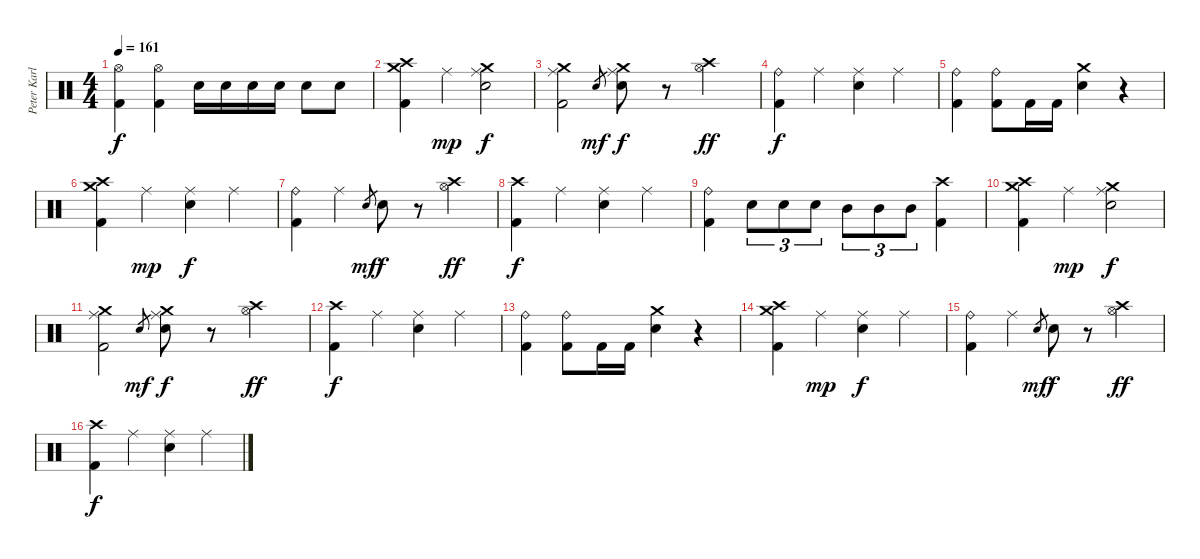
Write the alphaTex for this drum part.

\track ("Peter Karlsson" "Peter Karl") {instrument percussion}
\staff {score}
\articulation defaults
\ts (4 4)
\tempo 161
\clef neutral
\ks c
("Hi-Hat (open)" "Kick (hit) 2").4{dy f} ("Hi-Hat (open)" "Kick (hit) 2").4 "Snare (hit) 2".16 "Snare (hit) 2".16 "Snare (hit) 2".16 "Snare (hit) 2".16 "Snare (hit) 2".8 "Snare (hit) 2".8 |
("Crash high (hit)" "Crash medium (hit)" "Kick (hit) 2").4 "Ride (middle)".4{dy mp} ("Crash medium (hit)" "Ride (middle)" "Snare (hit) 2").2{dy f} |
("Crash medium (hit)" "Ride (middle)" "Kick (hit) 2").2 "Snare (hit) 2".8{gr dy mf} ("Crash medium (hit)" "Ride (middle)" "Snare (hit) 2").8{dy f} r.8 ("Crash high (hit)" "Hi-Hat (open)").4{dy ff} |
("Ride (bell)" "Kick (hit) 2").4{dy f} "Ride (middle)".4 ("Ride (middle)" "Snare (hit) 2").4 "Ride (middle)".4 |
("Ride (bell)" "Kick (hit) 2").4 ("Ride (bell)" "Kick (hit) 2").8 "Kick (hit) 2".16 "Kick (hit) 2".16 ("Crash medium (hit)" "Snare (hit) 2").4 r.4 |
("Crash high (hit)" "Crash medium (hit)" "Kick (hit) 2").4 "Ride (middle)".4{dy mp} ("Ride (middle)" "Snare (hit) 2").4{dy f} "Ride (middle)".4 |
("Ride (bell)" "Kick (hit) 2").4 "Ride (middle)".4 "Snare (hit) 2".8{gr dy mf} "Snare (hit) 2".8{dy f} r.8 ("Crash high (hit)" "Hi-Hat (open)").4{dy ff} |
("Crash high (hit)" "Kick (hit) 2").4{dy f} "Ride (middle)".4 ("Ride (middle)" "Snare (hit) 2").4 "Ride (middle)".4 |
("Ride (bell)" "Kick (hit) 2").4 "Snare (hit) 2".8{tu (3 2)} "Snare (hit) 2".8{tu (3 2)} "Snare (hit) 2".8{tu (3 2)} "Mid Tom (hit)".8{tu (3 2)} "Mid Tom (hit)".8{tu (3 2)} "Mid Tom (hit)".8{tu (3 2)} ("Crash high (hit)" "Kick (hit) 2").4 |
("Crash high (hit)" "Crash medium (hit)" "Kick (hit) 2").4 "Ride (middle)".4{dy mp} ("Crash medium (hit)" "Ride (middle)" "Snare (hit) 2").2{dy f} |
("Crash medium (hit)" "Ride (middle)" "Kick (hit) 2").2 "Snare (hit) 2".8{gr dy mf} ("Crash medium (hit)" "Ride (middle)" "Snare (hit) 2").8{dy f} r.8 ("Crash high (hit)" "Hi-Hat (open)").4{dy ff} |
("Crash high (hit)" "Kick (hit) 2").4{dy f} "Ride (middle)".4 ("Ride (middle)" "Snare (hit) 2").4 "Ride (middle)".4 |
("Ride (bell)" "Kick (hit) 2").4 ("Ride (bell)" "Kick (hit) 2").8 "Kick (hit) 2".16 "Kick (hit) 2".16 ("Crash medium (hit)" "Snare (hit) 2").4 r.4 |
("Crash high (hit)" "Crash medium (hit)" "Kick (hit) 2").4 "Ride (middle)".4{dy mp} ("Ride (middle)" "Snare (hit) 2").4{dy f} "Ride (middle)".4 |
("Ride (bell)" "Kick (hit) 2").4 "Ride (middle)".4 "Snare (hit) 2".8{gr dy mf} "Snare (hit) 2".8{dy f} r.8 ("Crash high (hit)" "Hi-Hat (open)").4{dy ff} |
("Crash high (hit)" "Kick (hit) 2").4{dy f} "Ride (middle)".4 ("Ride (middle)" "Snare (hit) 2").4 "Ride (middle)".4
